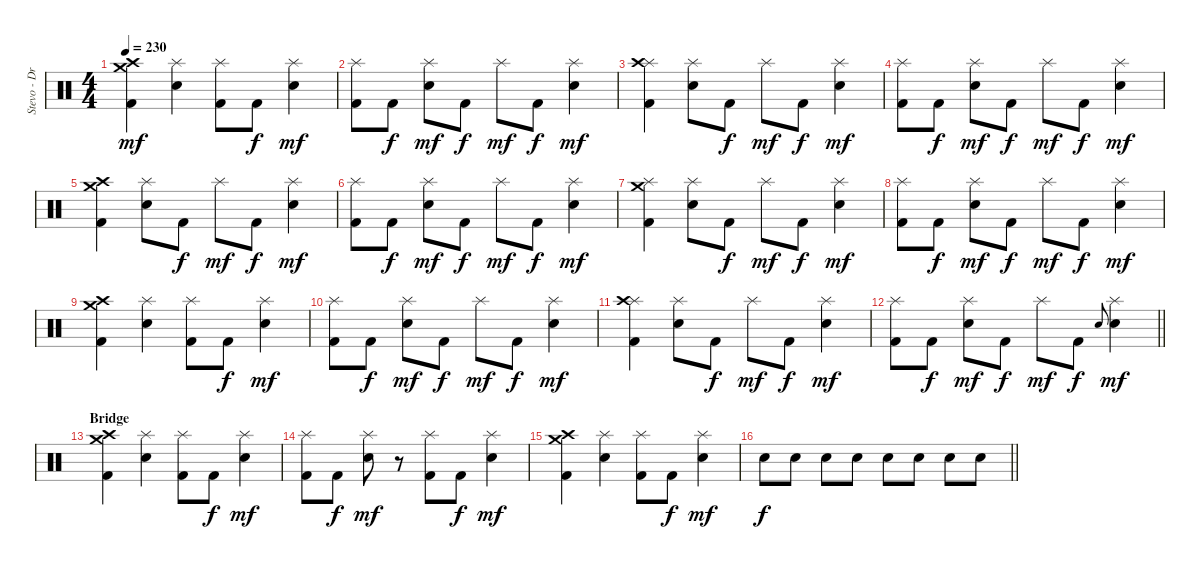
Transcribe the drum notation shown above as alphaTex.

\track ("Stevo - Drums" "Stevo - Dr") {instrument percussion}
\staff {score}
\articulation defaults
\ts (4 4)
\tempo 230
\clef neutral
\ks c
("Crash high (hit)" "Crash medium (hit)" "Kick (hit) 2").4{dy mf} ("Splash (hit)" "Electric Snare (hit)").4 ("Splash (hit)" "Kick (hit) 2").8 "Kick (hit) 2".8{dy f} ("Splash (hit)" "Electric Snare (hit)").4{dy mf} |
("Splash (hit)" "Kick (hit) 2").8 "Kick (hit) 2".8{dy f} ("Splash (hit)" "Electric Snare (hit)").8{dy mf} "Kick (hit) 2".8{dy f} "Splash (hit)".8{dy mf} "Kick (hit) 2".8{dy f} ("Splash (hit)" "Electric Snare (hit)").4{dy mf} |
("Splash (hit)" "Crash high (hit)" "Kick (hit) 2").4 ("Splash (hit)" "Electric Snare (hit)").8 "Kick (hit) 2".8{dy f} "Splash (hit)".8{dy mf} "Kick (hit) 2".8{dy f} ("Splash (hit)" "Electric Snare (hit)").4{dy mf} |
("Splash (hit)" "Kick (hit) 2").8 "Kick (hit) 2".8{dy f} ("Splash (hit)" "Electric Snare (hit)").8{dy mf} "Kick (hit) 2".8{dy f} "Splash (hit)".8{dy mf} "Kick (hit) 2".8{dy f} ("Splash (hit)" "Electric Snare (hit)").4{dy mf} |
("Crash high (hit)" "Crash medium (hit)" "Kick (hit) 2").4 ("Splash (hit)" "Electric Snare (hit)").8 "Kick (hit) 2".8{dy f} "Splash (hit)".8{dy mf} "Kick (hit) 2".8{dy f} ("Splash (hit)" "Electric Snare (hit)").4{dy mf} |
("Splash (hit)" "Kick (hit) 2").8 "Kick (hit) 2".8{dy f} ("Splash (hit)" "Electric Snare (hit)").8{dy mf} "Kick (hit) 2".8{dy f} "Splash (hit)".8{dy mf} "Kick (hit) 2".8{dy f} ("Splash (hit)" "Electric Snare (hit)").4{dy mf} |
("Splash (hit)" "Crash medium (hit)" "Kick (hit) 2").4 ("Splash (hit)" "Electric Snare (hit)").8 "Kick (hit) 2".8{dy f} "Splash (hit)".8{dy mf} "Kick (hit) 2".8{dy f} ("Splash (hit)" "Electric Snare (hit)").4{dy mf} |
("Splash (hit)" "Kick (hit) 2").8 "Kick (hit) 2".8{dy f} ("Splash (hit)" "Electric Snare (hit)").8{dy mf} "Kick (hit) 2".8{dy f} "Splash (hit)".8{dy mf} "Kick (hit) 2".8{dy f} ("Splash (hit)" "Electric Snare (hit)").4{dy mf} |
("Crash high (hit)" "Crash medium (hit)" "Kick (hit) 2").4 ("Splash (hit)" "Electric Snare (hit)").4 ("Splash (hit)" "Kick (hit) 2").8 "Kick (hit) 2".8{dy f} ("Splash (hit)" "Electric Snare (hit)").4{dy mf} |
("Splash (hit)" "Kick (hit) 2").8 "Kick (hit) 2".8{dy f} ("Splash (hit)" "Electric Snare (hit)").8{dy mf} "Kick (hit) 2".8{dy f} "Splash (hit)".8{dy mf} "Kick (hit) 2".8{dy f} ("Splash (hit)" "Electric Snare (hit)").4{dy mf} |
("Splash (hit)" "Crash high (hit)" "Kick (hit) 2").4 ("Splash (hit)" "Electric Snare (hit)").8 "Kick (hit) 2".8{dy f} "Splash (hit)".8{dy mf} "Kick (hit) 2".8{dy f} ("Splash (hit)" "Electric Snare (hit)").4{dy mf} |
\barLineRight lightlight
("Splash (hit)" "Kick (hit) 2").8 "Kick (hit) 2".8{dy f} ("Splash (hit)" "Electric Snare (hit)").8{dy mf} "Kick (hit) 2".8{dy f} "Splash (hit)".8{dy mf} "Kick (hit) 2".8{dy f} "Electric Snare (hit)".8{gr onbeat} ("Splash (hit)" "Electric Snare (hit)").4{dy mf} |
\section ("" "Bridge")
("Crash high (hit)" "Crash medium (hit)" "Kick (hit) 2").4 ("Splash (hit)" "Electric Snare (hit)").4 ("Splash (hit)" "Kick (hit) 2").8 "Kick (hit) 2".8{dy f} ("Splash (hit)" "Electric Snare (hit)").4{dy mf} |
("Splash (hit)" "Kick (hit) 2").8 "Kick (hit) 2".8{dy f} ("Splash (hit)" "Electric Snare (hit)").8{dy mf} r.8 ("Splash (hit)" "Kick (hit) 2").8 "Kick (hit) 2".8{dy f} ("Splash (hit)" "Electric Snare (hit)").4{dy mf} |
("Crash high (hit)" "Crash medium (hit)" "Kick (hit) 2").4 ("Splash (hit)" "Electric Snare (hit)").4 ("Splash (hit)" "Kick (hit) 2").8 "Kick (hit) 2".8{dy f} ("Splash (hit)" "Electric Snare (hit)").4{dy mf} |
\barLineRight lightlight "Electric Snare (hit)".8{dy f} "Electric Snare (hit)".8 "Electric Snare (hit)".8 "Electric Snare (hit)".8 "Electric Snare (hit)".8 "Electric Snare (hit)".8 "Electric Snare (hit)".8 "Electric Snare (hit)".8
